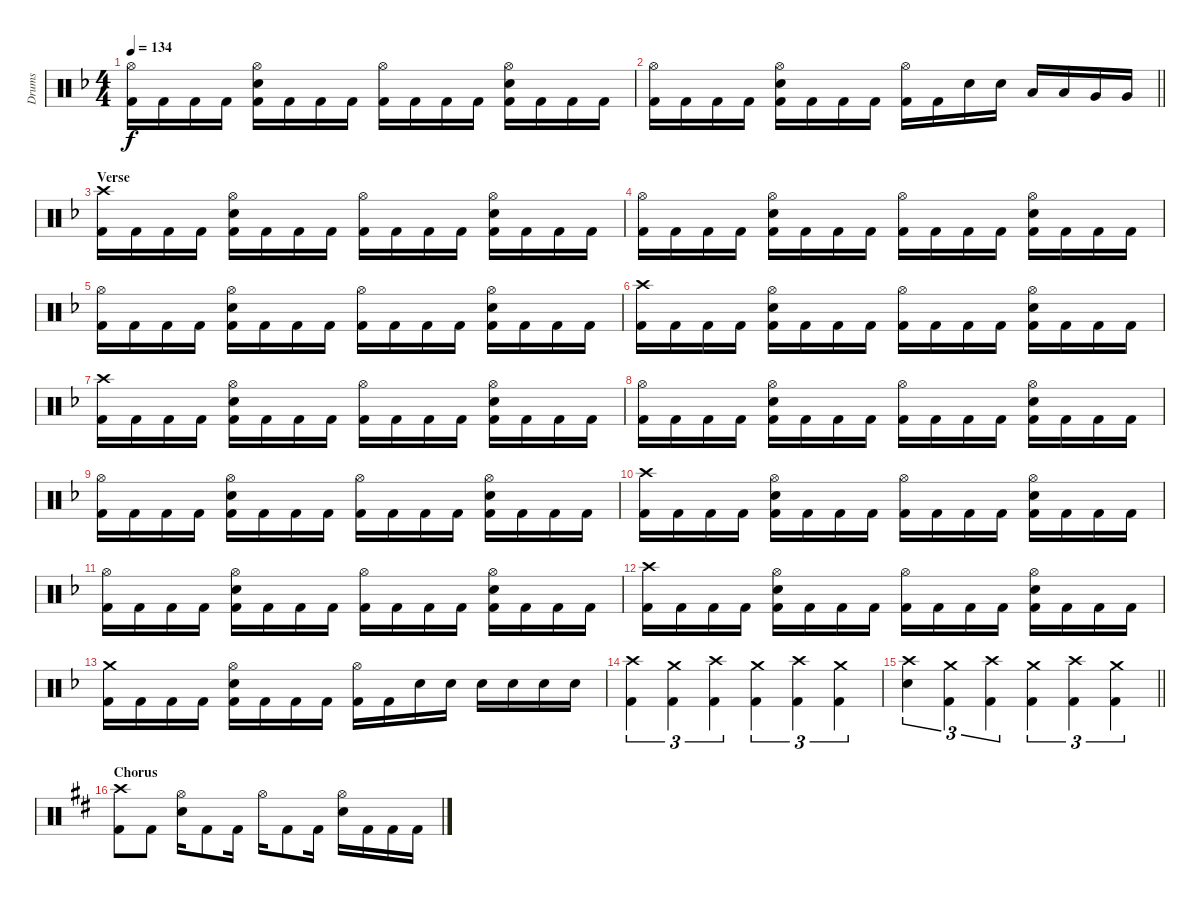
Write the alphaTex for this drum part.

\track ("Drums" "Drums") {instrument percussion}
\staff {score}
\articulation defaults
\ts (4 4)
\tempo 134
\clef neutral
\ks dminor
("Hi-Hat (open)" "Kick (hit) 2").16{dy f} "Kick (hit) 2".16 "Kick (hit) 2".16 "Kick (hit) 2".16 ("Hi-Hat (open)" "Snare (hit) 2" "Kick (hit) 2").16 "Kick (hit) 2".16 "Kick (hit) 2".16 "Kick (hit) 2".16 ("Hi-Hat (open)" "Kick (hit) 2").16 "Kick (hit) 2".16 "Kick (hit) 2".16 "Kick (hit) 2".16 ("Hi-Hat (open)" "Snare (hit) 2" "Kick (hit) 2").16 "Kick (hit) 2".16 "Kick (hit) 2".16 "Kick (hit) 2".16 |
\barLineRight lightlight
("Hi-Hat (open)" "Kick (hit) 2").16 "Kick (hit) 2".16 "Kick (hit) 2".16 "Kick (hit) 2".16 ("Hi-Hat (open)" "Snare (hit) 2" "Kick (hit) 2").16 "Kick (hit) 2".16 "Kick (hit) 2".16 "Kick (hit) 2".16 ("Hi-Hat (open)" "Kick (hit) 2").16 "Kick (hit) 2".16 "Snare (hit) 2".16 "Snare (hit) 2".16 "Low Tom (hit)".16 "Low Tom (hit)".16 "Very Low Tom (hit)".16 "Very Low Tom (hit)".16 |
\section ("" "Verse")
("Crash high (hit)" "Kick (hit) 2").16 "Kick (hit) 2".16 "Kick (hit) 2".16 "Kick (hit) 2".16 ("Hi-Hat (open)" "Snare (hit) 2" "Kick (hit) 2").16 "Kick (hit) 2".16 "Kick (hit) 2".16 "Kick (hit) 2".16 ("Hi-Hat (open)" "Kick (hit) 2").16 "Kick (hit) 2".16 "Kick (hit) 2".16 "Kick (hit) 2".16 ("Hi-Hat (open)" "Snare (hit) 2" "Kick (hit) 2").16 "Kick (hit) 2".16 "Kick (hit) 2".16 "Kick (hit) 2".16 |
("Hi-Hat (open)" "Kick (hit) 2").16 "Kick (hit) 2".16 "Kick (hit) 2".16 "Kick (hit) 2".16 ("Hi-Hat (open)" "Snare (hit) 2" "Kick (hit) 2").16 "Kick (hit) 2".16 "Kick (hit) 2".16 "Kick (hit) 2".16 ("Hi-Hat (open)" "Kick (hit) 2").16 "Kick (hit) 2".16 "Kick (hit) 2".16 "Kick (hit) 2".16 ("Hi-Hat (open)" "Snare (hit) 2" "Kick (hit) 2").16 "Kick (hit) 2".16 "Kick (hit) 2".16 "Kick (hit) 2".16 |
("Hi-Hat (open)" "Kick (hit) 2").16 "Kick (hit) 2".16 "Kick (hit) 2".16 "Kick (hit) 2".16 ("Hi-Hat (open)" "Snare (hit) 2" "Kick (hit) 2").16 "Kick (hit) 2".16 "Kick (hit) 2".16 "Kick (hit) 2".16 ("Hi-Hat (open)" "Kick (hit) 2").16 "Kick (hit) 2".16 "Kick (hit) 2".16 "Kick (hit) 2".16 ("Hi-Hat (open)" "Snare (hit) 2" "Kick (hit) 2").16 "Kick (hit) 2".16 "Kick (hit) 2".16 "Kick (hit) 2".16 |
("Crash high (hit)" "Kick (hit) 2").16 "Kick (hit) 2".16 "Kick (hit) 2".16 "Kick (hit) 2".16 ("Hi-Hat (open)" "Snare (hit) 2" "Kick (hit) 2").16 "Kick (hit) 2".16 "Kick (hit) 2".16 "Kick (hit) 2".16 ("Hi-Hat (open)" "Kick (hit) 2").16 "Kick (hit) 2".16 "Kick (hit) 2".16 "Kick (hit) 2".16 ("Hi-Hat (open)" "Snare (hit) 2" "Kick (hit) 2").16 "Kick (hit) 2".16 "Kick (hit) 2".16 "Kick (hit) 2".16 |
("Crash high (hit)" "Kick (hit) 2").16 "Kick (hit) 2".16 "Kick (hit) 2".16 "Kick (hit) 2".16 ("Hi-Hat (open)" "Snare (hit) 2" "Kick (hit) 2").16 "Kick (hit) 2".16 "Kick (hit) 2".16 "Kick (hit) 2".16 ("Hi-Hat (open)" "Kick (hit) 2").16 "Kick (hit) 2".16 "Kick (hit) 2".16 "Kick (hit) 2".16 ("Hi-Hat (open)" "Snare (hit) 2" "Kick (hit) 2").16 "Kick (hit) 2".16 "Kick (hit) 2".16 "Kick (hit) 2".16 |
("Hi-Hat (open)" "Kick (hit) 2").16 "Kick (hit) 2".16 "Kick (hit) 2".16 "Kick (hit) 2".16 ("Hi-Hat (open)" "Snare (hit) 2" "Kick (hit) 2").16 "Kick (hit) 2".16 "Kick (hit) 2".16 "Kick (hit) 2".16 ("Hi-Hat (open)" "Kick (hit) 2").16 "Kick (hit) 2".16 "Kick (hit) 2".16 "Kick (hit) 2".16 ("Hi-Hat (open)" "Snare (hit) 2" "Kick (hit) 2").16 "Kick (hit) 2".16 "Kick (hit) 2".16 "Kick (hit) 2".16 |
("Hi-Hat (open)" "Kick (hit) 2").16 "Kick (hit) 2".16 "Kick (hit) 2".16 "Kick (hit) 2".16 ("Hi-Hat (open)" "Snare (hit) 2" "Kick (hit) 2").16 "Kick (hit) 2".16 "Kick (hit) 2".16 "Kick (hit) 2".16 ("Hi-Hat (open)" "Kick (hit) 2").16 "Kick (hit) 2".16 "Kick (hit) 2".16 "Kick (hit) 2".16 ("Hi-Hat (open)" "Snare (hit) 2" "Kick (hit) 2").16 "Kick (hit) 2".16 "Kick (hit) 2".16 "Kick (hit) 2".16 |
("Crash high (hit)" "Kick (hit) 2").16 "Kick (hit) 2".16 "Kick (hit) 2".16 "Kick (hit) 2".16 ("Hi-Hat (open)" "Snare (hit) 2" "Kick (hit) 2").16 "Kick (hit) 2".16 "Kick (hit) 2".16 "Kick (hit) 2".16 ("Hi-Hat (open)" "Kick (hit) 2").16 "Kick (hit) 2".16 "Kick (hit) 2".16 "Kick (hit) 2".16 ("Hi-Hat (open)" "Snare (hit) 2" "Kick (hit) 2").16 "Kick (hit) 2".16 "Kick (hit) 2".16 "Kick (hit) 2".16 |
("Hi-Hat (open)" "Kick (hit) 2").16 "Kick (hit) 2".16 "Kick (hit) 2".16 "Kick (hit) 2".16 ("Hi-Hat (open)" "Snare (hit) 2" "Kick (hit) 2").16 "Kick (hit) 2".16 "Kick (hit) 2".16 "Kick (hit) 2".16 ("Hi-Hat (open)" "Kick (hit) 2").16 "Kick (hit) 2".16 "Kick (hit) 2".16 "Kick (hit) 2".16 ("Hi-Hat (open)" "Snare (hit) 2" "Kick (hit) 2").16 "Kick (hit) 2".16 "Kick (hit) 2".16 "Kick (hit) 2".16 |
("Crash high (hit)" "Kick (hit) 2").16 "Kick (hit) 2".16 "Kick (hit) 2".16 "Kick (hit) 2".16 ("Hi-Hat (open)" "Snare (hit) 2" "Kick (hit) 2").16 "Kick (hit) 2".16 "Kick (hit) 2".16 "Kick (hit) 2".16 ("Hi-Hat (open)" "Kick (hit) 2").16 "Kick (hit) 2".16 "Kick (hit) 2".16 "Kick (hit) 2".16 ("Hi-Hat (open)" "Snare (hit) 2" "Kick (hit) 2").16 "Kick (hit) 2".16 "Kick (hit) 2".16 "Kick (hit) 2".16 |
("Crash medium (hit)" "Kick (hit) 2").16 "Kick (hit) 2".16 "Kick (hit) 2".16 "Kick (hit) 2".16 ("Hi-Hat (open)" "Snare (hit) 2" "Kick (hit) 2").16 "Kick (hit) 2".16 "Kick (hit) 2".16 "Kick (hit) 2".16 ("Hi-Hat (open)" "Kick (hit) 2").16 "Kick (hit) 2".16 "Snare (hit) 2".16 "Snare (hit) 2".16 "Snare (hit) 2".16 "Snare (hit) 2".16 "Snare (hit) 2".16 "Snare (hit) 2".16 |
("Crash high (hit)" "Kick (hit) 2").4{tu (3 2)} ("Crash medium (hit)" "Kick (hit) 2").4{tu (3 2)} ("Crash high (hit)" "Kick (hit) 2").4{tu (3 2)} ("Crash medium (hit)" "Kick (hit) 2").4{tu (3 2)} ("Crash high (hit)" "Kick (hit) 2").4{tu (3 2)} ("Crash medium (hit)" "Kick (hit) 2").4{tu (3 2)} |
\barLineRight lightlight
("Crash high (hit)" "Snare (hit) 2").4{tu (3 2)} ("Crash medium (hit)" "Kick (hit) 2").4{tu (3 2)} ("Crash high (hit)" "Kick (hit) 2").4{tu (3 2)} ("Crash medium (hit)" "Kick (hit) 2").4{tu (3 2)} ("Crash high (hit)" "Kick (hit) 2").4{tu (3 2)} ("Crash medium (hit)" "Kick (hit) 2").4{tu (3 2)} |
\section ("" "Chorus")
\ks bminor
("Crash high (hit)" "Kick (hit) 2").8 "Kick (hit) 2".8 ("Hi-Hat (open)" "Snare (hit) 2").16 "Kick (hit) 2".8 "Kick (hit) 2".16 "Hi-Hat (open)".16 "Kick (hit) 2".8 "Kick (hit) 2".16 ("Hi-Hat (open)" "Snare (hit) 2").16 "Kick (hit) 2".16 "Kick (hit) 2".16 "Kick (hit) 2".16
